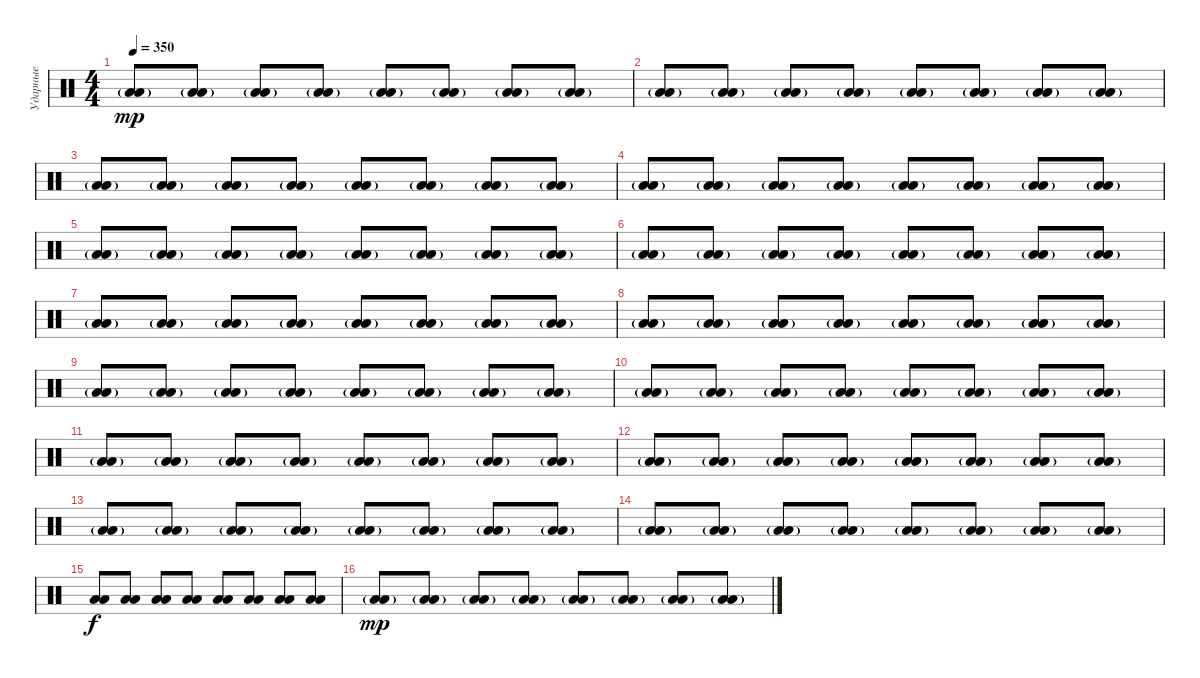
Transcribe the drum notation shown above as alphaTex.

\track ("Ударные" "Ударные") {instrument percussion}
\staff {score}
\articulation defaults
\ts (4 4)
\tempo 350
\clef neutral
\ks c
("Low Floor Tom (hit)"{g} "Low Floor Tom (hit)"{g}).8{dy mp} ("Low Floor Tom (hit)"{g} "Low Floor Tom (hit)"{g}).8 ("Low Floor Tom (hit)"{g} "Low Floor Tom (hit)"{g}).8 ("Low Floor Tom (hit)"{g} "Low Floor Tom (hit)"{g}).8 ("Low Floor Tom (hit)"{g} "Low Floor Tom (hit)"{g}).8 ("Low Floor Tom (hit)"{g} "Low Floor Tom (hit)"{g}).8 ("Low Floor Tom (hit)"{g} "Low Floor Tom (hit)"{g}).8 ("Low Floor Tom (hit)"{g} "Low Floor Tom (hit)"{g}).8 |
("Low Floor Tom (hit)"{g} "Low Floor Tom (hit)"{g}).8 ("Low Floor Tom (hit)"{g} "Low Floor Tom (hit)"{g}).8 ("Low Floor Tom (hit)"{g} "Low Floor Tom (hit)"{g}).8 ("Low Floor Tom (hit)"{g} "Low Floor Tom (hit)"{g}).8 ("Low Floor Tom (hit)"{g} "Low Floor Tom (hit)"{g}).8 ("Low Floor Tom (hit)"{g} "Low Floor Tom (hit)"{g}).8 ("Low Floor Tom (hit)"{g} "Low Floor Tom (hit)"{g}).8 ("Low Floor Tom (hit)"{g} "Low Floor Tom (hit)"{g}).8 |
("Low Floor Tom (hit)"{g} "Low Floor Tom (hit)"{g}).8 ("Low Floor Tom (hit)"{g} "Low Floor Tom (hit)"{g}).8 ("Low Floor Tom (hit)"{g} "Low Floor Tom (hit)"{g}).8 ("Low Floor Tom (hit)"{g} "Low Floor Tom (hit)"{g}).8 ("Low Floor Tom (hit)"{g} "Low Floor Tom (hit)"{g}).8 ("Low Floor Tom (hit)"{g} "Low Floor Tom (hit)"{g}).8 ("Low Floor Tom (hit)"{g} "Low Floor Tom (hit)"{g}).8 ("Low Floor Tom (hit)"{g} "Low Floor Tom (hit)"{g}).8 |
("Low Floor Tom (hit)"{g} "Low Floor Tom (hit)"{g}).8 ("Low Floor Tom (hit)"{g} "Low Floor Tom (hit)"{g}).8 ("Low Floor Tom (hit)"{g} "Low Floor Tom (hit)"{g}).8 ("Low Floor Tom (hit)"{g} "Low Floor Tom (hit)"{g}).8 ("Low Floor Tom (hit)"{g} "Low Floor Tom (hit)"{g}).8 ("Low Floor Tom (hit)"{g} "Low Floor Tom (hit)"{g}).8 ("Low Floor Tom (hit)"{g} "Low Floor Tom (hit)"{g}).8 ("Low Floor Tom (hit)"{g} "Low Floor Tom (hit)"{g}).8 |
("Low Floor Tom (hit)"{g} "Low Floor Tom (hit)"{g}).8 ("Low Floor Tom (hit)"{g} "Low Floor Tom (hit)"{g}).8 ("Low Floor Tom (hit)"{g} "Low Floor Tom (hit)"{g}).8 ("Low Floor Tom (hit)"{g} "Low Floor Tom (hit)"{g}).8 ("Low Floor Tom (hit)"{g} "Low Floor Tom (hit)"{g}).8 ("Low Floor Tom (hit)"{g} "Low Floor Tom (hit)"{g}).8 ("Low Floor Tom (hit)"{g} "Low Floor Tom (hit)"{g}).8 ("Low Floor Tom (hit)"{g} "Low Floor Tom (hit)"{g}).8 |
("Low Floor Tom (hit)"{g} "Low Floor Tom (hit)"{g}).8 ("Low Floor Tom (hit)"{g} "Low Floor Tom (hit)"{g}).8 ("Low Floor Tom (hit)"{g} "Low Floor Tom (hit)"{g}).8 ("Low Floor Tom (hit)"{g} "Low Floor Tom (hit)"{g}).8 ("Low Floor Tom (hit)"{g} "Low Floor Tom (hit)"{g}).8 ("Low Floor Tom (hit)"{g} "Low Floor Tom (hit)"{g}).8 ("Low Floor Tom (hit)"{g} "Low Floor Tom (hit)"{g}).8 ("Low Floor Tom (hit)"{g} "Low Floor Tom (hit)"{g}).8 |
("Low Floor Tom (hit)"{g} "Low Floor Tom (hit)"{g}).8 ("Low Floor Tom (hit)"{g} "Low Floor Tom (hit)"{g}).8 ("Low Floor Tom (hit)"{g} "Low Floor Tom (hit)"{g}).8 ("Low Floor Tom (hit)"{g} "Low Floor Tom (hit)"{g}).8 ("Low Floor Tom (hit)"{g} "Low Floor Tom (hit)"{g}).8 ("Low Floor Tom (hit)"{g} "Low Floor Tom (hit)"{g}).8 ("Low Floor Tom (hit)"{g} "Low Floor Tom (hit)"{g}).8 ("Low Floor Tom (hit)"{g} "Low Floor Tom (hit)"{g}).8 |
("Low Floor Tom (hit)"{g} "Low Floor Tom (hit)"{g}).8 ("Low Floor Tom (hit)"{g} "Low Floor Tom (hit)"{g}).8 ("Low Floor Tom (hit)"{g} "Low Floor Tom (hit)"{g}).8 ("Low Floor Tom (hit)"{g} "Low Floor Tom (hit)"{g}).8 ("Low Floor Tom (hit)"{g} "Low Floor Tom (hit)"{g}).8 ("Low Floor Tom (hit)"{g} "Low Floor Tom (hit)"{g}).8 ("Low Floor Tom (hit)"{g} "Low Floor Tom (hit)"{g}).8 ("Low Floor Tom (hit)"{g} "Low Floor Tom (hit)"{g}).8 |
("Low Floor Tom (hit)"{g} "Low Floor Tom (hit)"{g}).8 ("Low Floor Tom (hit)"{g} "Low Floor Tom (hit)"{g}).8 ("Low Floor Tom (hit)"{g} "Low Floor Tom (hit)"{g}).8 ("Low Floor Tom (hit)"{g} "Low Floor Tom (hit)"{g}).8 ("Low Floor Tom (hit)"{g} "Low Floor Tom (hit)"{g}).8 ("Low Floor Tom (hit)"{g} "Low Floor Tom (hit)"{g}).8 ("Low Floor Tom (hit)"{g} "Low Floor Tom (hit)"{g}).8 ("Low Floor Tom (hit)"{g} "Low Floor Tom (hit)"{g}).8 |
("Low Floor Tom (hit)"{g} "Low Floor Tom (hit)"{g}).8 ("Low Floor Tom (hit)"{g} "Low Floor Tom (hit)"{g}).8 ("Low Floor Tom (hit)"{g} "Low Floor Tom (hit)"{g}).8 ("Low Floor Tom (hit)"{g} "Low Floor Tom (hit)"{g}).8 ("Low Floor Tom (hit)"{g} "Low Floor Tom (hit)"{g}).8 ("Low Floor Tom (hit)"{g} "Low Floor Tom (hit)"{g}).8 ("Low Floor Tom (hit)"{g} "Low Floor Tom (hit)"{g}).8 ("Low Floor Tom (hit)"{g} "Low Floor Tom (hit)"{g}).8 |
("Low Floor Tom (hit)"{g} "Low Floor Tom (hit)"{g}).8 ("Low Floor Tom (hit)"{g} "Low Floor Tom (hit)"{g}).8 ("Low Floor Tom (hit)"{g} "Low Floor Tom (hit)"{g}).8 ("Low Floor Tom (hit)"{g} "Low Floor Tom (hit)"{g}).8 ("Low Floor Tom (hit)"{g} "Low Floor Tom (hit)"{g}).8 ("Low Floor Tom (hit)"{g} "Low Floor Tom (hit)"{g}).8 ("Low Floor Tom (hit)"{g} "Low Floor Tom (hit)"{g}).8 ("Low Floor Tom (hit)"{g} "Low Floor Tom (hit)"{g}).8 |
("Low Floor Tom (hit)"{g} "Low Floor Tom (hit)"{g}).8 ("Low Floor Tom (hit)"{g} "Low Floor Tom (hit)"{g}).8 ("Low Floor Tom (hit)"{g} "Low Floor Tom (hit)"{g}).8 ("Low Floor Tom (hit)"{g} "Low Floor Tom (hit)"{g}).8 ("Low Floor Tom (hit)"{g} "Low Floor Tom (hit)"{g}).8 ("Low Floor Tom (hit)"{g} "Low Floor Tom (hit)"{g}).8 ("Low Floor Tom (hit)"{g} "Low Floor Tom (hit)"{g}).8 ("Low Floor Tom (hit)"{g} "Low Floor Tom (hit)"{g}).8 |
("Low Floor Tom (hit)"{g} "Low Floor Tom (hit)"{g}).8 ("Low Floor Tom (hit)"{g} "Low Floor Tom (hit)"{g}).8 ("Low Floor Tom (hit)"{g} "Low Floor Tom (hit)"{g}).8 ("Low Floor Tom (hit)"{g} "Low Floor Tom (hit)"{g}).8 ("Low Floor Tom (hit)"{g} "Low Floor Tom (hit)"{g}).8 ("Low Floor Tom (hit)"{g} "Low Floor Tom (hit)"{g}).8 ("Low Floor Tom (hit)"{g} "Low Floor Tom (hit)"{g}).8 ("Low Floor Tom (hit)"{g} "Low Floor Tom (hit)"{g}).8 |
("Low Floor Tom (hit)"{g} "Low Floor Tom (hit)"{g}).8 ("Low Floor Tom (hit)"{g} "Low Floor Tom (hit)"{g}).8 ("Low Floor Tom (hit)"{g} "Low Floor Tom (hit)"{g}).8 ("Low Floor Tom (hit)"{g} "Low Floor Tom (hit)"{g}).8 ("Low Floor Tom (hit)"{g} "Low Floor Tom (hit)"{g}).8 ("Low Floor Tom (hit)"{g} "Low Floor Tom (hit)"{g}).8 ("Low Floor Tom (hit)"{g} "Low Floor Tom (hit)"{g}).8 ("Low Floor Tom (hit)"{g} "Low Floor Tom (hit)"{g}).8 |
("Low Floor Tom (hit)" "Low Floor Tom (hit)").8{dy f} ("Low Floor Tom (hit)" "Low Floor Tom (hit)").8 ("Low Floor Tom (hit)" "Low Floor Tom (hit)").8 ("Low Floor Tom (hit)" "Low Floor Tom (hit)").8 ("Low Floor Tom (hit)" "Low Floor Tom (hit)").8 ("Low Floor Tom (hit)" "Low Floor Tom (hit)").8 ("Low Floor Tom (hit)" "Low Floor Tom (hit)").8 ("Low Floor Tom (hit)" "Low Floor Tom (hit)").8 |
("Low Floor Tom (hit)"{g} "Low Floor Tom (hit)"{g}).8{dy mp} ("Low Floor Tom (hit)"{g} "Low Floor Tom (hit)"{g}).8 ("Low Floor Tom (hit)"{g} "Low Floor Tom (hit)"{g}).8 ("Low Floor Tom (hit)"{g} "Low Floor Tom (hit)"{g}).8 ("Low Floor Tom (hit)"{g} "Low Floor Tom (hit)"{g}).8 ("Low Floor Tom (hit)"{g} "Low Floor Tom (hit)"{g}).8 ("Low Floor Tom (hit)"{g} "Low Floor Tom (hit)"{g}).8 ("Low Floor Tom (hit)"{g} "Low Floor Tom (hit)"{g}).8
